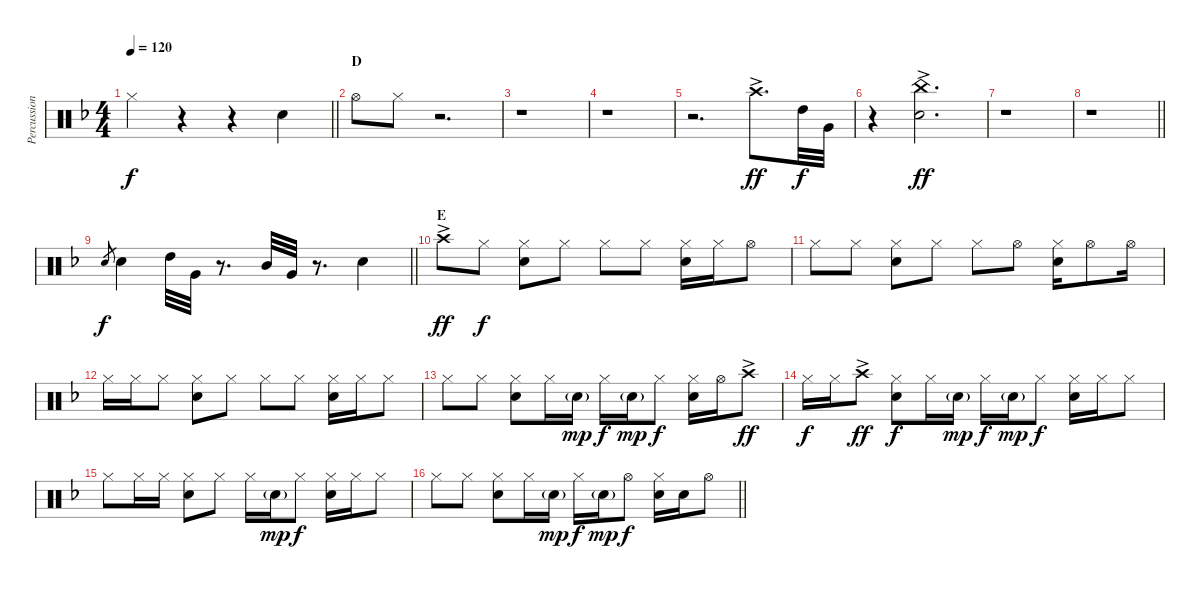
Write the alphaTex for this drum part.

\track ("Percussion hand" "Percussion") {instrument percussion}
\staff {score}
\articulation defaults
\ts (4 4)
\tempo 120
\clef neutral
\barLineRight lightlight
\ks f "Hi-Hat (closed)".4{dy f}
r.4 r.4 "Snare (hit) 2".4 |
\section ("" "D")
"Hi-Hat (open)".8 "Hi-Hat (closed)".8 r.2{d} |
r.1 |
r.1 |
r.2{d} "Crash high (hit)"{ac}.8{d dy ff} "High Tom (hit)".32{dy f} "Very Low Tom (hit)".32 |
r.4 ("China (hit)" "Snare (hit) 2"{ac}).2{d dy ff} |
r.1 |
\barLineRight lightlight
r.1 |
\barLineRight lightlight "Snare (hit) 2".8{gr dy f} "Snare (hit) 2".4 "High Tom (hit)".32 "Very Low Tom (hit)".32
r.8{d} "Mid Tom (hit)".32 "Very Low Tom (hit)".32 r.8{d} "Snare (hit) 2".4 |
\section ("" "E")
"Crash high (hit)"{ac}.8{dy ff} "Hi-Hat (closed)".8{dy f} ("Hi-Hat (closed)" "Snare (hit) 2").8 "Hi-Hat (closed)".8 "Hi-Hat (closed)".8 "Hi-Hat (closed)".8 ("Hi-Hat (closed)" "Snare (hit) 2").16 "Hi-Hat (closed)".16 "Hi-Hat (open)".8 |
"Hi-Hat (closed)".8 "Hi-Hat (closed)".8 ("Hi-Hat (closed)" "Snare (hit) 2").8 "Hi-Hat (closed)".8 "Hi-Hat (closed)".8 "Hi-Hat (open)".8 ("Hi-Hat (closed)" "Snare (hit) 2").16 "Hi-Hat (open)".8 "Hi-Hat (open)".16 |
"Hi-Hat (closed)".16 "Hi-Hat (closed)".16 "Hi-Hat (closed)".8 ("Hi-Hat (closed)" "Snare (hit) 2").8 "Hi-Hat (closed)".8 "Hi-Hat (closed)".8 "Hi-Hat (closed)".8 ("Hi-Hat (closed)" "Snare (hit) 2").16 "Hi-Hat (closed)".16 "Hi-Hat (closed)".8 |
"Hi-Hat (closed)".8 "Hi-Hat (closed)".8 ("Hi-Hat (closed)" "Snare (hit) 2").8 "Hi-Hat (closed)".16 "Snare (hit) 2"{g}.16{dy mp} "Hi-Hat (closed)".16{dy f} "Snare (hit) 2"{g}.16{dy mp} "Hi-Hat (closed)".8{dy f} ("Hi-Hat (closed)" "Snare (hit) 2").16 "Hi-Hat (open)".16 "Crash high (hit)"{ac}.8{dy ff} |
"Hi-Hat (closed)".16{dy f} "Hi-Hat (closed)".16 "Crash high (hit)"{ac}.8{dy ff} ("Hi-Hat (closed)" "Snare (hit) 2").8{dy f} "Hi-Hat (closed)".16 "Snare (hit) 2"{g}.16{dy mp} "Hi-Hat (closed)".16{dy f} "Snare (hit) 2"{g}.16{dy mp} "Hi-Hat (closed)".8{dy f} ("Hi-Hat (closed)" "Snare (hit) 2").16 "Hi-Hat (closed)".16 "Hi-Hat (closed)".8 |
"Hi-Hat (closed)".8 "Hi-Hat (closed)".16 "Hi-Hat (closed)".16 ("Hi-Hat (closed)" "Snare (hit) 2").8 "Hi-Hat (closed)".8 "Hi-Hat (closed)".16 "Snare (hit) 2"{g}.16{dy mp} "Hi-Hat (closed)".8{dy f} ("Hi-Hat (closed)" "Snare (hit) 2").16 "Hi-Hat (closed)".16 "Hi-Hat (closed)".8 |
\barLineRight lightlight "Hi-Hat (closed)".8 "Hi-Hat (closed)".8
("Hi-Hat (closed)" "Snare (hit) 2").8 "Hi-Hat (closed)".16 "Snare (hit) 2"{g}.16{dy mp} "Hi-Hat (closed)".16{dy f} "Snare (hit) 2"{g}.16{dy mp} "Hi-Hat (open)".8{dy f} ("Hi-Hat (closed)" "Snare (hit) 2").16 "Snare (hit) 2".16 "Hi-Hat (open)".8
